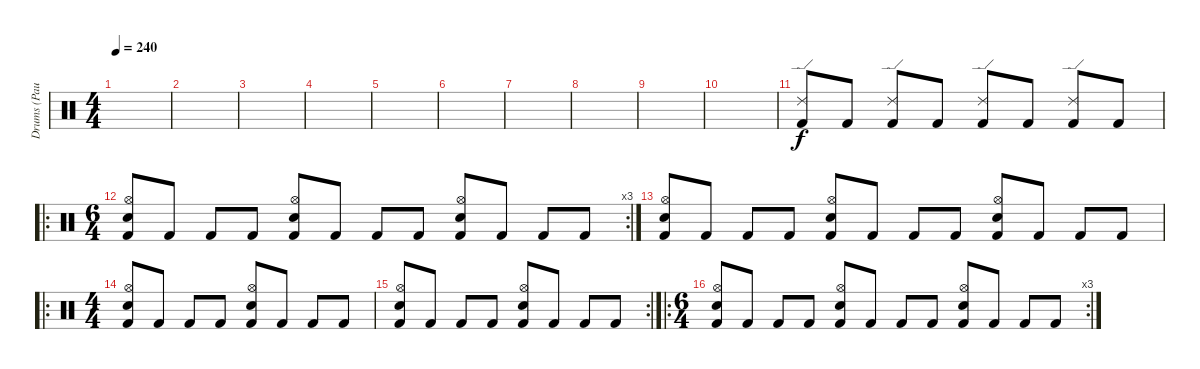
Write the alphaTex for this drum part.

\track ("Drums (Paul)" "Drums (Pau") {instrument percussion}
\staff {score}
\articulation defaults
\ts (4 4)
\tempo 240
\clef neutral
\ks c
|
|
|
|
|
|
|
|
|
|
("Ride (edge) 2" "Kick (hit) 2").8 "Kick (hit) 2".8 ("Ride (edge) 2" "Kick (hit) 2").8 "Kick (hit) 2".8 ("Ride (edge) 2" "Kick (hit) 2").8 "Kick (hit) 2".8 ("Ride (edge) 2" "Kick (hit) 2").8 "Kick (hit) 2".8 |
\ro
\rc 3
\ts (6 4)
("Hi-Hat (open)" "Snare (hit) 2" "Kick (hit) 2").8 "Kick (hit) 2".8 "Kick (hit) 2".8 "Kick (hit) 2".8 ("Hi-Hat (open)" "Snare (hit) 2" "Kick (hit) 2").8 "Kick (hit) 2".8 "Kick (hit) 2".8 "Kick (hit) 2".8 ("Hi-Hat (open)" "Snare (hit) 2" "Kick (hit) 2").8 "Kick (hit) 2".8 "Kick (hit) 2".8 "Kick (hit) 2".8 |
("Hi-Hat (open)" "Snare (hit) 2" "Kick (hit) 2").8 "Kick (hit) 2".8 "Kick (hit) 2".8 "Kick (hit) 2".8 ("Hi-Hat (open)" "Snare (hit) 2" "Kick (hit) 2").8 "Kick (hit) 2".8 "Kick (hit) 2".8 "Kick (hit) 2".8 ("Hi-Hat (open)" "Snare (hit) 2" "Kick (hit) 2").8 "Kick (hit) 2".8 "Kick (hit) 2".8 "Kick (hit) 2".8 |
\ro
\ts (4 4)
("Hi-Hat (open)" "Snare (hit) 2" "Kick (hit) 2").8 "Kick (hit) 2".8 "Kick (hit) 2".8 "Kick (hit) 2".8 ("Hi-Hat (open)" "Snare (hit) 2" "Kick (hit) 2").8 "Kick (hit) 2".8 "Kick (hit) 2".8 "Kick (hit) 2".8 |
\rc 2
("Hi-Hat (open)" "Snare (hit) 2" "Kick (hit) 2").8 "Kick (hit) 2".8 "Kick (hit) 2".8 "Kick (hit) 2".8 ("Hi-Hat (open)" "Snare (hit) 2" "Kick (hit) 2").8 "Kick (hit) 2".8 "Kick (hit) 2".8 "Kick (hit) 2".8 |
\ro
\rc 3
\ts (6 4)
("Hi-Hat (open)" "Snare (hit) 2" "Kick (hit) 2").8 "Kick (hit) 2".8 "Kick (hit) 2".8 "Kick (hit) 2".8 ("Hi-Hat (open)" "Snare (hit) 2" "Kick (hit) 2").8 "Kick (hit) 2".8 "Kick (hit) 2".8 "Kick (hit) 2".8 ("Hi-Hat (open)" "Snare (hit) 2" "Kick (hit) 2").8 "Kick (hit) 2".8 "Kick (hit) 2".8 "Kick (hit) 2".8
